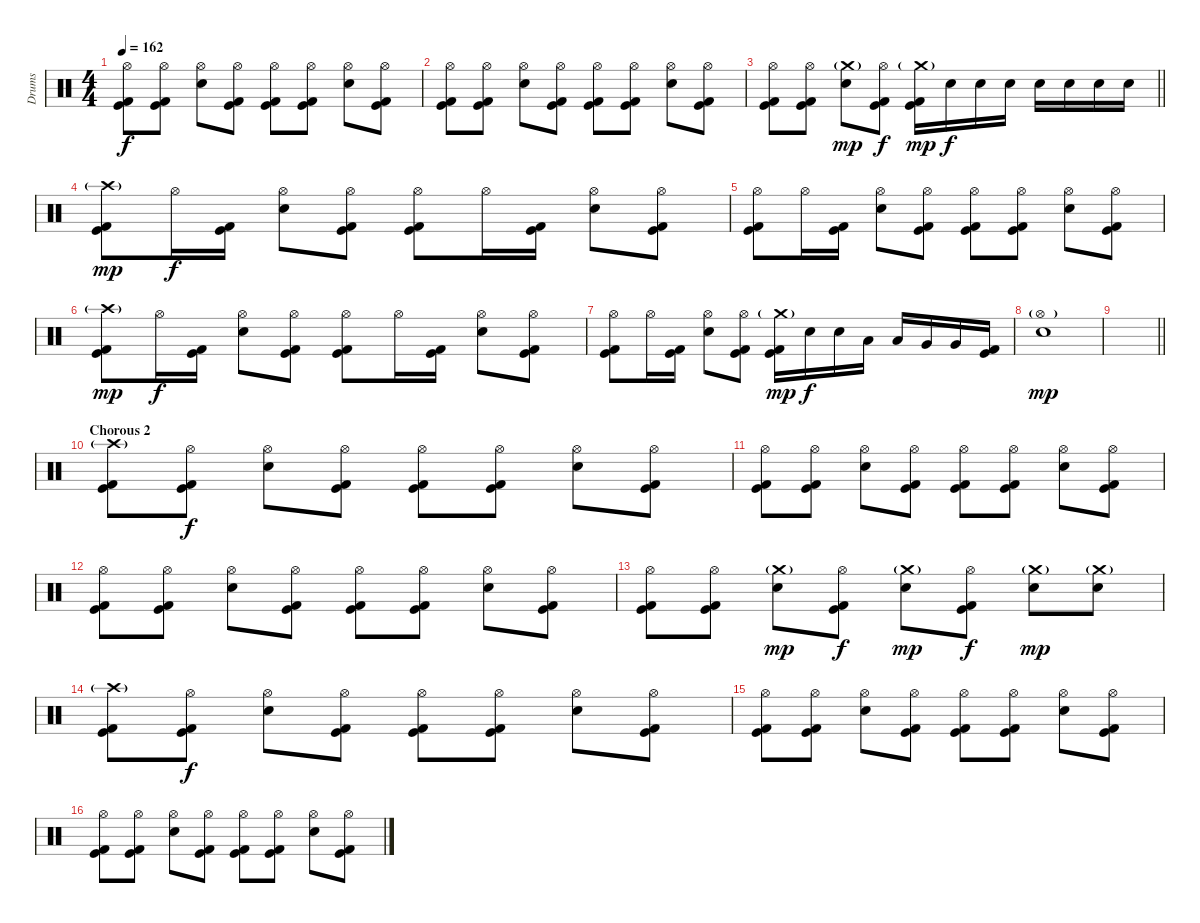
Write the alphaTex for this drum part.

\track ("Drums" "Drums") {instrument percussion}
\staff {score}
\articulation defaults
\ts (4 4)
\tempo 162
\clef neutral
\ks c
("Hi-Hat (open)" "Kick (hit)" "Kick (hit) 2").8{dy f} ("Hi-Hat (open)" "Kick (hit)" "Kick (hit) 2").8 ("Hi-Hat (open)" "Electric Snare (hit)").8 ("Hi-Hat (open)" "Kick (hit)" "Kick (hit) 2").8 ("Hi-Hat (open)" "Kick (hit)" "Kick (hit) 2").8 ("Hi-Hat (open)" "Kick (hit)" "Kick (hit) 2").8 ("Hi-Hat (open)" "Electric Snare (hit)").8 ("Hi-Hat (open)" "Kick (hit)" "Kick (hit) 2").8 |
("Hi-Hat (open)" "Kick (hit)" "Kick (hit) 2").8 ("Hi-Hat (open)" "Kick (hit)" "Kick (hit) 2").8 ("Hi-Hat (open)" "Electric Snare (hit)").8 ("Hi-Hat (open)" "Kick (hit)" "Kick (hit) 2").8 ("Hi-Hat (open)" "Kick (hit)" "Kick (hit) 2").8 ("Hi-Hat (open)" "Kick (hit)" "Kick (hit) 2").8 ("Hi-Hat (open)" "Electric Snare (hit)").8 ("Hi-Hat (open)" "Kick (hit)" "Kick (hit) 2").8 |
\barLineRight lightlight
("Hi-Hat (open)" "Kick (hit)" "Kick (hit) 2").8 ("Hi-Hat (open)" "Kick (hit)" "Kick (hit) 2").8 ("Crash medium (hit)"{g} "Electric Snare (hit)").8{dy mp} ("Hi-Hat (open)" "Kick (hit)" "Kick (hit) 2").8{dy f} ("Crash medium (hit)"{g} "Kick (hit)" "Kick (hit) 2").16{dy mp} "Electric Snare (hit)".16{dy f} "Electric Snare (hit)".16 "Electric Snare (hit)".16 "Electric Snare (hit)".16 "Electric Snare (hit)".16 "Electric Snare (hit)".16 "Electric Snare (hit)".16 |
\section ("" "")
("Crash high (hit)"{g} "Kick (hit)" "Kick (hit) 2").8{dy mp} "Hi-Hat (open)".16{dy f} ("Kick (hit)" "Kick (hit) 2").16 ("Hi-Hat (open)" "Electric Snare (hit)").8 ("Hi-Hat (open)" "Kick (hit)" "Kick (hit) 2").8 ("Hi-Hat (open)" "Kick (hit)" "Kick (hit) 2").8 "Hi-Hat (open)".16 ("Kick (hit)" "Kick (hit) 2").16 ("Hi-Hat (open)" "Electric Snare (hit)").8 ("Hi-Hat (open)" "Kick (hit)" "Kick (hit) 2").8 |
("Hi-Hat (open)" "Kick (hit)" "Kick (hit) 2").8 "Hi-Hat (open)".16 ("Kick (hit)" "Kick (hit) 2").16 ("Hi-Hat (open)" "Electric Snare (hit)").8 ("Hi-Hat (open)" "Kick (hit)" "Kick (hit) 2").8 ("Hi-Hat (open)" "Kick (hit)" "Kick (hit) 2").8 ("Hi-Hat (open)" "Kick (hit)" "Kick (hit) 2").8 ("Hi-Hat (open)" "Electric Snare (hit)").8 ("Hi-Hat (open)" "Kick (hit)" "Kick (hit) 2").8 |
("Crash high (hit)"{g} "Kick (hit)" "Kick (hit) 2").8{dy mp} "Hi-Hat (open)".16{dy f} ("Kick (hit)" "Kick (hit) 2").16 ("Hi-Hat (open)" "Electric Snare (hit)").8 ("Hi-Hat (open)" "Kick (hit)" "Kick (hit) 2").8 ("Hi-Hat (open)" "Kick (hit)" "Kick (hit) 2").8 "Hi-Hat (open)".16 ("Kick (hit)" "Kick (hit) 2").16 ("Hi-Hat (open)" "Electric Snare (hit)").8 ("Hi-Hat (open)" "Kick (hit)" "Kick (hit) 2").8 |
("Hi-Hat (open)" "Kick (hit)" "Kick (hit) 2").8 "Hi-Hat (open)".16 ("Kick (hit)" "Kick (hit) 2").16 ("Hi-Hat (open)" "Electric Snare (hit)").8 ("Hi-Hat (open)" "Kick (hit)" "Kick (hit) 2").8 ("Crash medium (hit)"{g} "Kick (hit)" "Kick (hit) 2").16{dy mp} "Electric Snare (hit)".16{dy f} "Electric Snare (hit)".16 "Low Tom (hit)".16 "Low Tom (hit)".16 "Very Low Tom (hit)".16 "Very Low Tom (hit)".16 ("Kick (hit)" "Kick (hit) 2").16 |
("Hi-Hat (open)"{g} "Electric Snare (hit)").1{dy mp} |
\barLineRight lightlight
|
\section ("" "Chorous 2")
("Crash high (hit)"{g} "Kick (hit)" "Kick (hit) 2").8 ("Hi-Hat (open)" "Kick (hit)" "Kick (hit) 2").8{dy f} ("Hi-Hat (open)" "Electric Snare (hit)").8 ("Hi-Hat (open)" "Kick (hit)" "Kick (hit) 2").8 ("Hi-Hat (open)" "Kick (hit)" "Kick (hit) 2").8 ("Hi-Hat (open)" "Kick (hit)" "Kick (hit) 2").8 ("Hi-Hat (open)" "Electric Snare (hit)").8 ("Hi-Hat (open)" "Kick (hit)" "Kick (hit) 2").8 |
("Hi-Hat (open)" "Kick (hit)" "Kick (hit) 2").8 ("Hi-Hat (open)" "Kick (hit)" "Kick (hit) 2").8 ("Hi-Hat (open)" "Electric Snare (hit)").8 ("Hi-Hat (open)" "Kick (hit)" "Kick (hit) 2").8 ("Hi-Hat (open)" "Kick (hit)" "Kick (hit) 2").8 ("Hi-Hat (open)" "Kick (hit)" "Kick (hit) 2").8 ("Hi-Hat (open)" "Electric Snare (hit)").8 ("Hi-Hat (open)" "Kick (hit)" "Kick (hit) 2").8 |
("Hi-Hat (open)" "Kick (hit)" "Kick (hit) 2").8 ("Hi-Hat (open)" "Kick (hit)" "Kick (hit) 2").8 ("Hi-Hat (open)" "Electric Snare (hit)").8 ("Hi-Hat (open)" "Kick (hit)" "Kick (hit) 2").8 ("Hi-Hat (open)" "Kick (hit)" "Kick (hit) 2").8 ("Hi-Hat (open)" "Kick (hit)" "Kick (hit) 2").8 ("Hi-Hat (open)" "Electric Snare (hit)").8 ("Hi-Hat (open)" "Kick (hit)" "Kick (hit) 2").8 |
("Hi-Hat (open)" "Kick (hit)" "Kick (hit) 2").8 ("Hi-Hat (open)" "Kick (hit)" "Kick (hit) 2").8 ("Crash medium (hit)"{g} "Electric Snare (hit)").8{dy mp} ("Hi-Hat (open)" "Kick (hit)" "Kick (hit) 2").8{dy f} ("Crash medium (hit)"{g} "Electric Snare (hit)").8{dy mp} ("Hi-Hat (open)" "Kick (hit)" "Kick (hit) 2").8{dy f} ("Crash medium (hit)"{g} "Electric Snare (hit)").8{dy mp} ("Crash medium (hit)"{g} "Electric Snare (hit)").8 |
("Crash high (hit)"{g} "Kick (hit)" "Kick (hit) 2").8 ("Hi-Hat (open)" "Kick (hit)" "Kick (hit) 2").8{dy f} ("Hi-Hat (open)" "Electric Snare (hit)").8 ("Hi-Hat (open)" "Kick (hit)" "Kick (hit) 2").8 ("Hi-Hat (open)" "Kick (hit)" "Kick (hit) 2").8 ("Hi-Hat (open)" "Kick (hit)" "Kick (hit) 2").8 ("Hi-Hat (open)" "Electric Snare (hit)").8 ("Hi-Hat (open)" "Kick (hit)" "Kick (hit) 2").8 |
("Hi-Hat (open)" "Kick (hit)" "Kick (hit) 2").8 ("Hi-Hat (open)" "Kick (hit)" "Kick (hit) 2").8 ("Hi-Hat (open)" "Electric Snare (hit)").8 ("Hi-Hat (open)" "Kick (hit)" "Kick (hit) 2").8 ("Hi-Hat (open)" "Kick (hit)" "Kick (hit) 2").8 ("Hi-Hat (open)" "Kick (hit)" "Kick (hit) 2").8 ("Hi-Hat (open)" "Electric Snare (hit)").8 ("Hi-Hat (open)" "Kick (hit)" "Kick (hit) 2").8 |
("Hi-Hat (open)" "Kick (hit)" "Kick (hit) 2").8 ("Hi-Hat (open)" "Kick (hit)" "Kick (hit) 2").8 ("Hi-Hat (open)" "Electric Snare (hit)").8 ("Hi-Hat (open)" "Kick (hit)" "Kick (hit) 2").8 ("Hi-Hat (open)" "Kick (hit)" "Kick (hit) 2").8 ("Hi-Hat (open)" "Kick (hit)" "Kick (hit) 2").8 ("Hi-Hat (open)" "Electric Snare (hit)").8 ("Hi-Hat (open)" "Kick (hit)" "Kick (hit) 2").8
